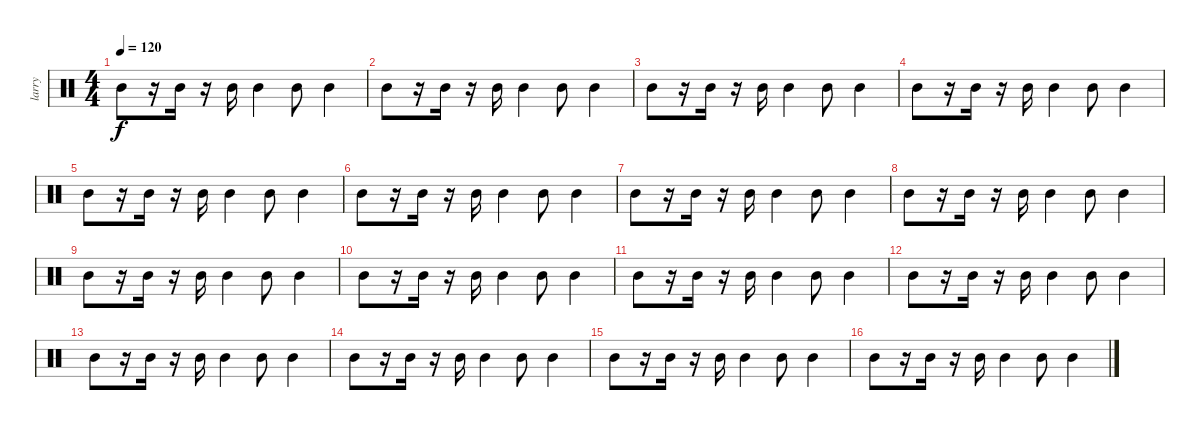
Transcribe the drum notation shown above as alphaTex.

\track ("larry" "larry") {instrument percussion}
\staff {score}
\articulation defaults
\ts (4 4)
\tempo 120
\clef neutral
\ks c "Mid Tom (hit)".8{dy f}
r.16 "Mid Tom (hit)".16 r.16 "Mid Tom (hit)".16 "Mid Tom (hit)".4 "Mid Tom (hit)".8 "Mid Tom (hit)".4 |
"Mid Tom (hit)".8 r.16 "Mid Tom (hit)".16 r.16 "Mid Tom (hit)".16 "Mid Tom (hit)".4 "Mid Tom (hit)".8 "Mid Tom (hit)".4 |
"Mid Tom (hit)".8 r.16 "Mid Tom (hit)".16 r.16 "Mid Tom (hit)".16 "Mid Tom (hit)".4 "Mid Tom (hit)".8 "Mid Tom (hit)".4 |
"Mid Tom (hit)".8 r.16 "Mid Tom (hit)".16 r.16 "Mid Tom (hit)".16 "Mid Tom (hit)".4 "Mid Tom (hit)".8 "Mid Tom (hit)".4 |
"Mid Tom (hit)".8 r.16 "Mid Tom (hit)".16 r.16 "Mid Tom (hit)".16 "Mid Tom (hit)".4 "Mid Tom (hit)".8 "Mid Tom (hit)".4 |
"Mid Tom (hit)".8 r.16 "Mid Tom (hit)".16 r.16 "Mid Tom (hit)".16 "Mid Tom (hit)".4 "Mid Tom (hit)".8 "Mid Tom (hit)".4 |
"Mid Tom (hit)".8 r.16 "Mid Tom (hit)".16 r.16 "Mid Tom (hit)".16 "Mid Tom (hit)".4 "Mid Tom (hit)".8 "Mid Tom (hit)".4 |
"Mid Tom (hit)".8 r.16 "Mid Tom (hit)".16 r.16 "Mid Tom (hit)".16 "Mid Tom (hit)".4 "Mid Tom (hit)".8 "Mid Tom (hit)".4 |
"Mid Tom (hit)".8 r.16 "Mid Tom (hit)".16 r.16 "Mid Tom (hit)".16 "Mid Tom (hit)".4 "Mid Tom (hit)".8 "Mid Tom (hit)".4 |
"Mid Tom (hit)".8 r.16 "Mid Tom (hit)".16 r.16 "Mid Tom (hit)".16 "Mid Tom (hit)".4 "Mid Tom (hit)".8 "Mid Tom (hit)".4 |
"Mid Tom (hit)".8 r.16 "Mid Tom (hit)".16 r.16 "Mid Tom (hit)".16 "Mid Tom (hit)".4 "Mid Tom (hit)".8 "Mid Tom (hit)".4 |
"Mid Tom (hit)".8 r.16 "Mid Tom (hit)".16 r.16 "Mid Tom (hit)".16 "Mid Tom (hit)".4 "Mid Tom (hit)".8 "Mid Tom (hit)".4 |
"Mid Tom (hit)".8 r.16 "Mid Tom (hit)".16 r.16 "Mid Tom (hit)".16 "Mid Tom (hit)".4 "Mid Tom (hit)".8 "Mid Tom (hit)".4 |
"Mid Tom (hit)".8 r.16 "Mid Tom (hit)".16 r.16 "Mid Tom (hit)".16 "Mid Tom (hit)".4 "Mid Tom (hit)".8 "Mid Tom (hit)".4 |
"Mid Tom (hit)".8 r.16 "Mid Tom (hit)".16 r.16 "Mid Tom (hit)".16 "Mid Tom (hit)".4 "Mid Tom (hit)".8 "Mid Tom (hit)".4 |
"Mid Tom (hit)".8 r.16 "Mid Tom (hit)".16 r.16 "Mid Tom (hit)".16 "Mid Tom (hit)".4 "Mid Tom (hit)".8 "Mid Tom (hit)".4
